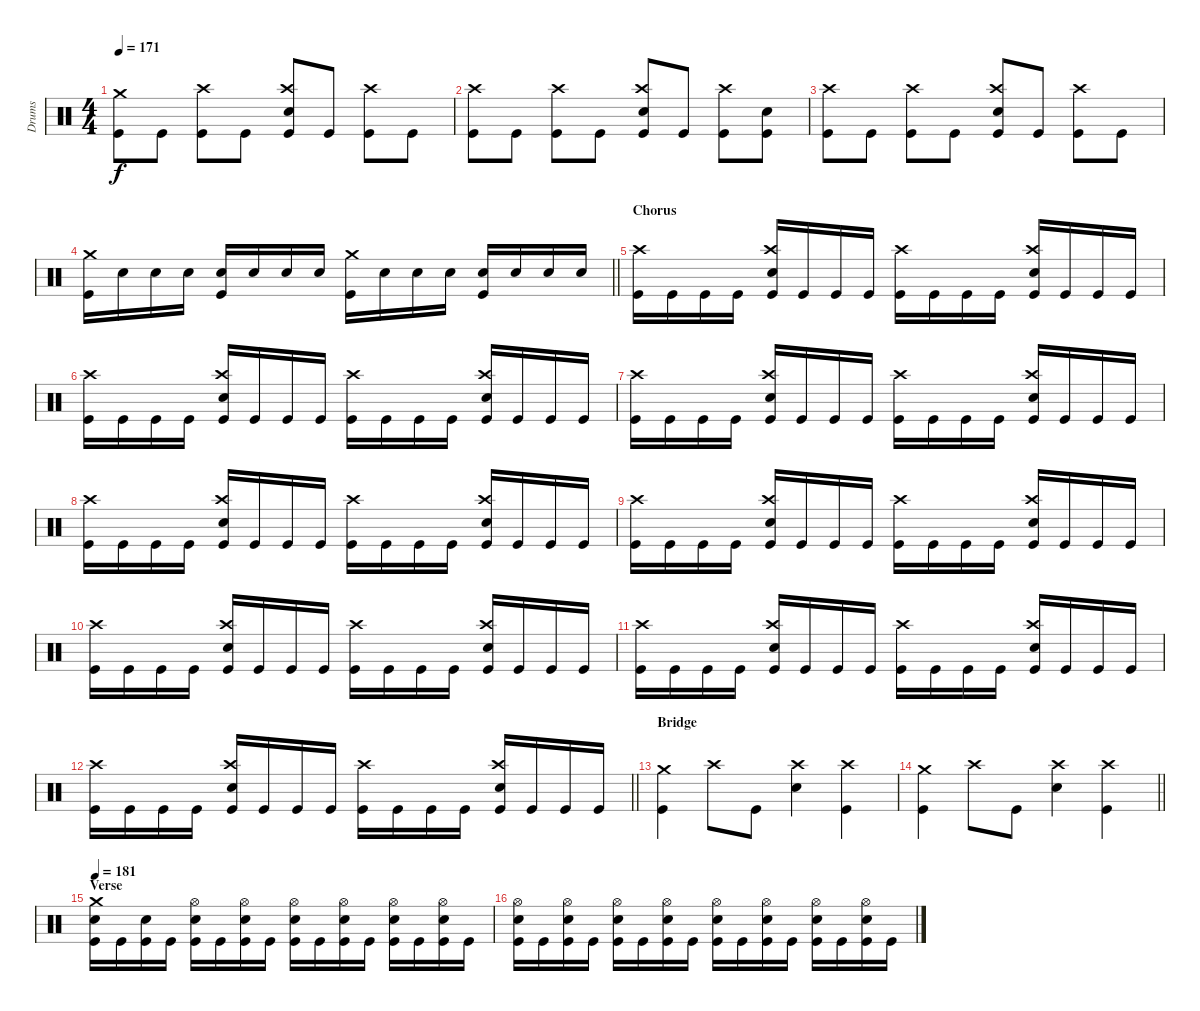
\track ("Drums" "Drums") {instrument percussion}
\staff {score}
\articulation defaults
\ts (4 4)
\tempo 171
\clef neutral
\ks c
("Crash medium (hit)" "Kick (hit)").8{dy f} "Kick (hit)".8 ("Crash high (hit)" "Kick (hit)").8 "Kick (hit)".8 ("Crash high (hit)" "Snare (hit) 2" "Kick (hit)").8 "Kick (hit)".8 ("Crash high (hit)" "Kick (hit)").8 "Kick (hit)".8 |
("Crash high (hit)" "Kick (hit)").8 "Kick (hit)".8 ("Crash high (hit)" "Kick (hit)").8 "Kick (hit)".8 ("Crash high (hit)" "Snare (hit) 2" "Kick (hit)").8 "Kick (hit)".8 ("Crash high (hit)" "Kick (hit)").8 ("Snare (hit) 2" "Kick (hit)").8 |
("Crash high (hit)" "Kick (hit)").8 "Kick (hit)".8 ("Crash high (hit)" "Kick (hit)").8 "Kick (hit)".8 ("Crash high (hit)" "Snare (hit) 2" "Kick (hit)").8 "Kick (hit)".8 ("Crash high (hit)" "Kick (hit)").8 "Kick (hit)".8 |
\barLineRight lightlight
("Crash medium (hit)" "Kick (hit)").16 "Snare (hit) 2".16 "Snare (hit) 2".16 "Snare (hit) 2".16 ("Snare (hit) 2" "Kick (hit)").16 "Snare (hit) 2".16 "Snare (hit) 2".16 "Snare (hit) 2".16 ("Crash medium (hit)" "Kick (hit)").16 "Snare (hit) 2".16 "Snare (hit) 2".16 "Snare (hit) 2".16 ("Snare (hit) 2" "Kick (hit)").16 "Snare (hit) 2".16 "Snare (hit) 2".16 "Snare (hit) 2".16 |
\section ("" "Chorus")
("Crash high (hit)" "Kick (hit)").16 "Kick (hit)".16 "Kick (hit)".16 "Kick (hit)".16 ("Crash high (hit)" "Snare (hit) 2" "Kick (hit)").16 "Kick (hit)".16 "Kick (hit)".16 "Kick (hit)".16 ("Crash high (hit)" "Kick (hit)").16 "Kick (hit)".16 "Kick (hit)".16 "Kick (hit)".16 ("Crash high (hit)" "Snare (hit) 2" "Kick (hit)").16 "Kick (hit)".16 "Kick (hit)".16 "Kick (hit)".16 |
("Crash high (hit)" "Kick (hit)").16 "Kick (hit)".16 "Kick (hit)".16 "Kick (hit)".16 ("Crash high (hit)" "Snare (hit) 2" "Kick (hit)").16 "Kick (hit)".16 "Kick (hit)".16 "Kick (hit)".16 ("Crash high (hit)" "Kick (hit)").16 "Kick (hit)".16 "Kick (hit)".16 "Kick (hit)".16 ("Crash high (hit)" "Snare (hit) 2" "Kick (hit)").16 "Kick (hit)".16 "Kick (hit)".16 "Kick (hit)".16 |
("Crash high (hit)" "Kick (hit)").16 "Kick (hit)".16 "Kick (hit)".16 "Kick (hit)".16 ("Crash high (hit)" "Snare (hit) 2" "Kick (hit)").16 "Kick (hit)".16 "Kick (hit)".16 "Kick (hit)".16 ("Crash high (hit)" "Kick (hit)").16 "Kick (hit)".16 "Kick (hit)".16 "Kick (hit)".16 ("Crash high (hit)" "Snare (hit) 2" "Kick (hit)").16 "Kick (hit)".16 "Kick (hit)".16 "Kick (hit)".16 |
("Crash high (hit)" "Kick (hit)").16 "Kick (hit)".16 "Kick (hit)".16 "Kick (hit)".16 ("Crash high (hit)" "Snare (hit) 2" "Kick (hit)").16 "Kick (hit)".16 "Kick (hit)".16 "Kick (hit)".16 ("Crash high (hit)" "Kick (hit)").16 "Kick (hit)".16 "Kick (hit)".16 "Kick (hit)".16 ("Crash high (hit)" "Snare (hit) 2" "Kick (hit)").16 "Kick (hit)".16 "Kick (hit)".16 "Kick (hit)".16 |
("Crash high (hit)" "Kick (hit)").16 "Kick (hit)".16 "Kick (hit)".16 "Kick (hit)".16 ("Crash high (hit)" "Snare (hit) 2" "Kick (hit)").16 "Kick (hit)".16 "Kick (hit)".16 "Kick (hit)".16 ("Crash high (hit)" "Kick (hit)").16 "Kick (hit)".16 "Kick (hit)".16 "Kick (hit)".16 ("Crash high (hit)" "Snare (hit) 2" "Kick (hit)").16 "Kick (hit)".16 "Kick (hit)".16 "Kick (hit)".16 |
("Crash high (hit)" "Kick (hit)").16 "Kick (hit)".16 "Kick (hit)".16 "Kick (hit)".16 ("Crash high (hit)" "Snare (hit) 2" "Kick (hit)").16 "Kick (hit)".16 "Kick (hit)".16 "Kick (hit)".16 ("Crash high (hit)" "Kick (hit)").16 "Kick (hit)".16 "Kick (hit)".16 "Kick (hit)".16 ("Crash high (hit)" "Snare (hit) 2" "Kick (hit)").16 "Kick (hit)".16 "Kick (hit)".16 "Kick (hit)".16 |
("Crash high (hit)" "Kick (hit)").16 "Kick (hit)".16 "Kick (hit)".16 "Kick (hit)".16 ("Crash high (hit)" "Snare (hit) 2" "Kick (hit)").16 "Kick (hit)".16 "Kick (hit)".16 "Kick (hit)".16 ("Crash high (hit)" "Kick (hit)").16 "Kick (hit)".16 "Kick (hit)".16 "Kick (hit)".16 ("Crash high (hit)" "Snare (hit) 2" "Kick (hit)").16 "Kick (hit)".16 "Kick (hit)".16 "Kick (hit)".16 |
\barLineRight lightlight
("Crash high (hit)" "Kick (hit)").16 "Kick (hit)".16 "Kick (hit)".16 "Kick (hit)".16 ("Crash high (hit)" "Snare (hit) 2" "Kick (hit)").16 "Kick (hit)".16 "Kick (hit)".16 "Kick (hit)".16 ("Crash high (hit)" "Kick (hit)").16 "Kick (hit)".16 "Kick (hit)".16 "Kick (hit)".16 ("Crash high (hit)" "Snare (hit) 2" "Kick (hit)").16 "Kick (hit)".16 "Kick (hit)".16 "Kick (hit)".16 |
\section ("" "Bridge")
("Crash medium (hit)" "Kick (hit)").4 "Crash high (hit)".8 "Kick (hit)".8 ("Crash high (hit)" "Snare (hit) 2").4 ("Crash high (hit)" "Kick (hit)").4 |
\barLineRight lightlight
("Crash medium (hit)" "Kick (hit)").4 "Crash high (hit)".8 "Kick (hit)".8 ("Crash high (hit)" "Snare (hit) 2").4 ("Crash high (hit)" "Kick (hit)").4 |
\section ("" "Verse")
\tempo 181
("Crash medium (hit)" "Snare (hit) 2" "Kick (hit)").16 "Kick (hit)".16 ("Snare (hit) 2" "Kick (hit)").16 "Kick (hit)".16 ("Hi-Hat (open)" "Snare (hit) 2" "Kick (hit)").16 "Kick (hit)".16 ("Hi-Hat (open)" "Snare (hit) 2" "Kick (hit)").16 "Kick (hit)".16 ("Hi-Hat (open)" "Snare (hit) 2" "Kick (hit)").16 "Kick (hit)".16 ("Hi-Hat (open)" "Snare (hit) 2" "Kick (hit)").16 "Kick (hit)".16 ("Hi-Hat (open)" "Snare (hit) 2" "Kick (hit)").16 "Kick (hit)".16 ("Hi-Hat (open)" "Snare (hit) 2" "Kick (hit)").16 "Kick (hit)".16 |
("Hi-Hat (open)" "Snare (hit) 2" "Kick (hit)").16 "Kick (hit)".16 ("Hi-Hat (open)" "Snare (hit) 2" "Kick (hit)").16 "Kick (hit)".16 ("Hi-Hat (open)" "Snare (hit) 2" "Kick (hit)").16 "Kick (hit)".16 ("Hi-Hat (open)" "Snare (hit) 2" "Kick (hit)").16 "Kick (hit)".16 ("Hi-Hat (open)" "Snare (hit) 2" "Kick (hit)").16 "Kick (hit)".16 ("Hi-Hat (open)" "Snare (hit) 2" "Kick (hit)").16 "Kick (hit)".16 ("Hi-Hat (open)" "Snare (hit) 2" "Kick (hit)").16 "Kick (hit)".16 ("Hi-Hat (open)" "Snare (hit) 2" "Kick (hit)").16 "Kick (hit)".16
